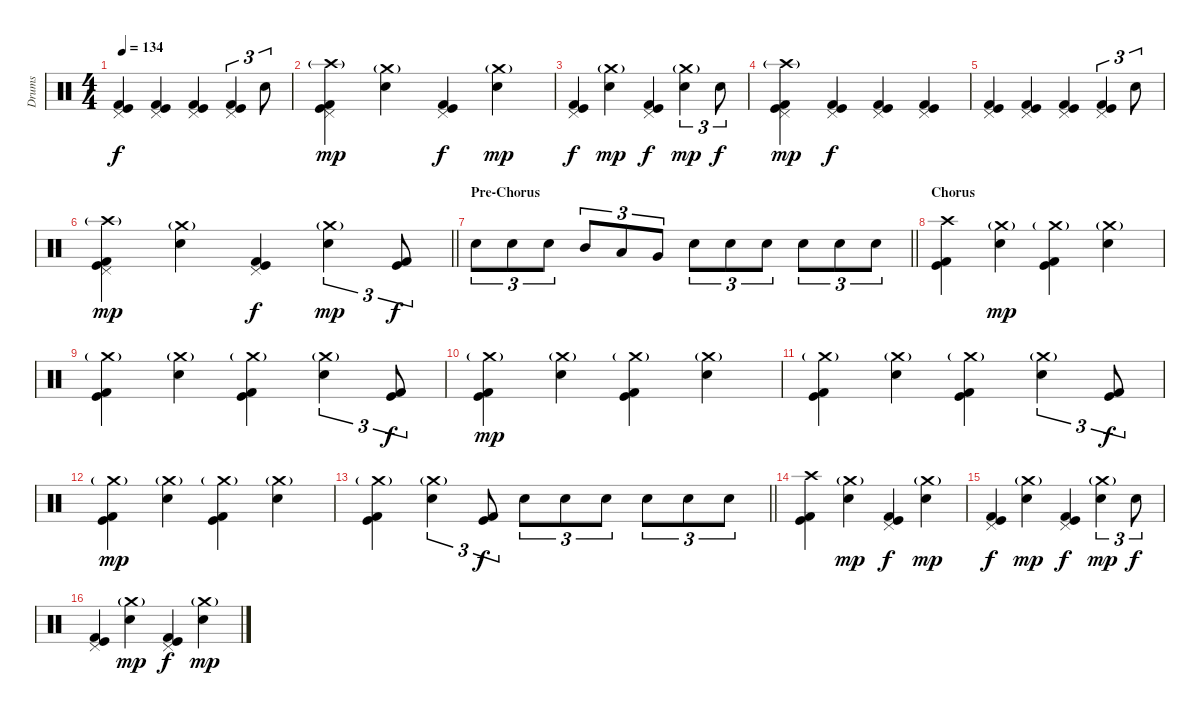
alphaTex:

\track ("Drums" "Drums") {instrument percussion}
\staff {score}
\articulation defaults
\ts (4 4)
\tempo 134
\clef neutral
\ks c
("Pedal Hi-Hat (hit)" "Kick (hit)" "Kick (hit) 2").4{dy f} ("Pedal Hi-Hat (hit)" "Kick (hit)" "Kick (hit) 2").4 ("Pedal Hi-Hat (hit)" "Kick (hit)" "Kick (hit) 2").4 ("Pedal Hi-Hat (hit)" "Kick (hit)" "Kick (hit) 2").4{tu (3 2)} "Electric Snare (hit)".8{tu (3 2)} |
("Pedal Hi-Hat (hit)" "Crash high (hit)"{g} "Kick (hit)" "Kick (hit) 2").4{dy mp} ("Crash medium (hit)"{g} "Electric Snare (hit)").4 ("Pedal Hi-Hat (hit)" "Kick (hit)" "Kick (hit) 2").4{dy f} ("Crash medium (hit)"{g} "Electric Snare (hit)").4{dy mp} |
("Pedal Hi-Hat (hit)" "Kick (hit)" "Kick (hit) 2").4{dy f} ("Crash medium (hit)"{g} "Electric Snare (hit)").4{dy mp} ("Pedal Hi-Hat (hit)" "Kick (hit)" "Kick (hit) 2").4{dy f} ("Crash medium (hit)"{g} "Electric Snare (hit)").4{tu (3 2) dy mp} "Electric Snare (hit)".8{tu (3 2) dy f} |
("Pedal Hi-Hat (hit)" "Crash high (hit)"{g} "Kick (hit)" "Kick (hit) 2").4{dy mp} ("Pedal Hi-Hat (hit)" "Kick (hit)" "Kick (hit) 2").4{dy f} ("Pedal Hi-Hat (hit)" "Kick (hit)" "Kick (hit) 2").4 ("Pedal Hi-Hat (hit)" "Kick (hit)" "Kick (hit) 2").4 |
("Pedal Hi-Hat (hit)" "Kick (hit)" "Kick (hit) 2").4 ("Pedal Hi-Hat (hit)" "Kick (hit)" "Kick (hit) 2").4 ("Pedal Hi-Hat (hit)" "Kick (hit)" "Kick (hit) 2").4 ("Pedal Hi-Hat (hit)" "Kick (hit)" "Kick (hit) 2").4{tu (3 2)} "Electric Snare (hit)".8{tu (3 2)} |
\barLineRight lightlight
("Pedal Hi-Hat (hit)" "Crash high (hit)"{g} "Kick (hit)" "Kick (hit) 2").4{dy mp} ("Crash medium (hit)"{g} "Electric Snare (hit)").4 ("Pedal Hi-Hat (hit)" "Kick (hit)" "Kick (hit) 2").4{dy f} ("Crash medium (hit)"{g} "Electric Snare (hit)").4{tu (3 2) dy mp} ("Kick (hit)" "Kick (hit) 2").8{tu (3 2) dy f} |
\section ("" "Pre-Chorus")
\barLineRight lightlight "Electric Snare (hit)".8{tu (3 2)} "Electric Snare (hit)".8{tu (3 2)} "Electric Snare (hit)".8{tu (3 2)} "Mid Tom (hit)".8{tu (3 2)} "Low Tom (hit)".8{tu (3 2)} "Very Low Tom (hit)".8{tu (3 2)} "Electric Snare (hit)".8{tu (3 2)} "Electric Snare (hit)".8{tu (3 2)} "Electric Snare (hit)".8{tu (3 2)} "Electric Snare (hit)".8{tu (3 2)} "Electric Snare (hit)".8{tu (3 2)} "Electric Snare (hit)".8{tu (3 2)}
|
\section ("" "Chorus")
("Crash high (hit)" "Kick (hit)" "Kick (hit) 2").4 ("Crash medium (hit)"{g} "Electric Snare (hit)").4{dy mp} ("Crash medium (hit)"{g} "Kick (hit)" "Kick (hit) 2").4 ("Crash medium (hit)"{g} "Electric Snare (hit)").4 |
("Crash medium (hit)"{g} "Kick (hit)" "Kick (hit) 2").4 ("Crash medium (hit)"{g} "Electric Snare (hit)").4 ("Crash medium (hit)"{g} "Kick (hit)" "Kick (hit) 2").4 ("Crash medium (hit)"{g} "Electric Snare (hit)").4{tu (3 2)} ("Kick (hit)" "Kick (hit) 2").8{tu (3 2) dy f} |
("Crash medium (hit)"{g} "Kick (hit)" "Kick (hit) 2").4{dy mp} ("Crash medium (hit)"{g} "Electric Snare (hit)").4 ("Crash medium (hit)"{g} "Kick (hit)" "Kick (hit) 2").4 ("Crash medium (hit)"{g} "Electric Snare (hit)").4 |
("Crash medium (hit)"{g} "Kick (hit)" "Kick (hit) 2").4 ("Crash medium (hit)"{g} "Electric Snare (hit)").4 ("Crash medium (hit)"{g} "Kick (hit)" "Kick (hit) 2").4 ("Crash medium (hit)"{g} "Electric Snare (hit)").4{tu (3 2)} ("Kick (hit)" "Kick (hit) 2").8{tu (3 2) dy f} |
("Crash medium (hit)"{g} "Kick (hit)" "Kick (hit) 2").4{dy mp} ("Crash medium (hit)"{g} "Electric Snare (hit)").4 ("Crash medium (hit)"{g} "Kick (hit)" "Kick (hit) 2").4 ("Crash medium (hit)"{g} "Electric Snare (hit)").4 |
\barLineRight lightlight
("Crash medium (hit)"{g} "Kick (hit)" "Kick (hit) 2").4 ("Crash medium (hit)"{g} "Electric Snare (hit)").4{tu (3 2)} ("Kick (hit)" "Kick (hit) 2").8{tu (3 2) dy f} "Electric Snare (hit)".8{tu (3 2)} "Electric Snare (hit)".8{tu (3 2)} "Electric Snare (hit)".8{tu (3 2)} "Electric Snare (hit)".8{tu (3 2)} "Electric Snare (hit)".8{tu (3 2)} "Electric Snare (hit)".8{tu (3 2)} |
("Crash high (hit)" "Kick (hit)" "Kick (hit) 2").4 ("Crash medium (hit)"{g} "Electric Snare (hit)").4{dy mp} ("Pedal Hi-Hat (hit)" "Kick (hit)" "Kick (hit) 2").4{dy f} ("Crash medium (hit)"{g} "Electric Snare (hit)").4{dy mp} |
("Pedal Hi-Hat (hit)" "Kick (hit)" "Kick (hit) 2").4{dy f} ("Crash medium (hit)"{g} "Electric Snare (hit)").4{dy mp} ("Pedal Hi-Hat (hit)" "Kick (hit)" "Kick (hit) 2").4{dy f} ("Crash medium (hit)"{g} "Electric Snare (hit)").4{tu (3 2) dy mp} "Electric Snare (hit)".8{tu (3 2) dy f} |
("Pedal Hi-Hat (hit)" "Kick (hit)" "Kick (hit) 2").4 ("Crash medium (hit)"{g} "Electric Snare (hit)").4{dy mp} ("Pedal Hi-Hat (hit)" "Kick (hit)" "Kick (hit) 2").4{dy f} ("Crash medium (hit)"{g} "Electric Snare (hit)").4{dy mp}
